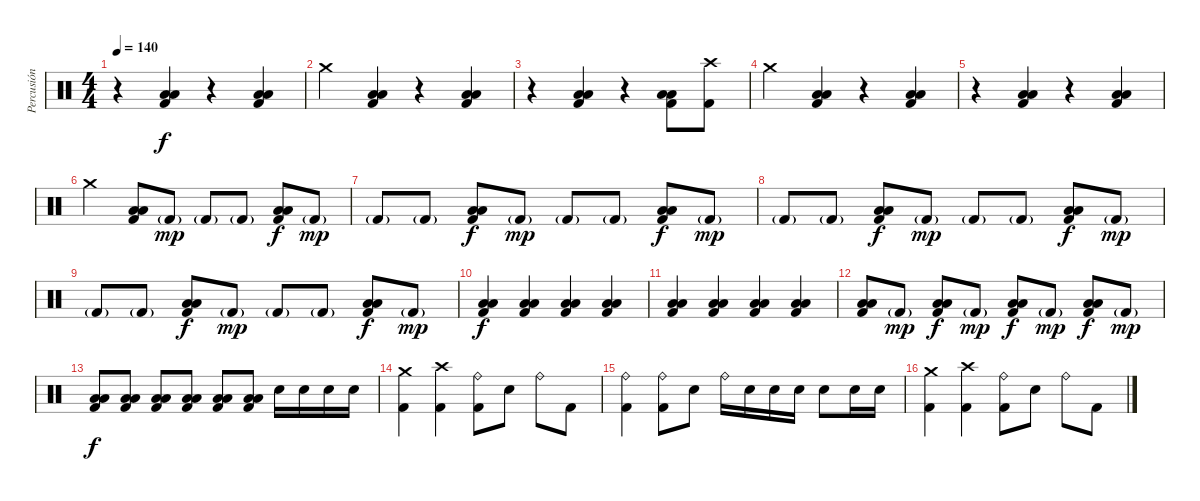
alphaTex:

\track ("Percusión" "Percusión") {instrument percussion}
\staff {score}
\articulation defaults
\ts (4 4)
\tempo 140
\clef neutral
\ks c
r.4{dy f} ("Low Floor Tom (hit)" "Low Floor Tom (hit)" "Kick (hit) 2").4 r.4 ("Low Floor Tom (hit)" "Low Floor Tom (hit)" "Kick (hit) 2").4 |
"Crash medium (hit)".4 ("Low Floor Tom (hit)" "Low Floor Tom (hit)" "Kick (hit) 2").4 r.4 ("Low Floor Tom (hit)" "Low Floor Tom (hit)" "Kick (hit) 2").4 |
r.4 ("Low Floor Tom (hit)" "Low Floor Tom (hit)" "Kick (hit) 2").4 r.4 ("Low Floor Tom (hit)" "Low Floor Tom (hit)" "Kick (hit) 2").8 ("Crash high (hit)" "Kick (hit) 2").8 |
"Crash medium (hit)".4 ("Low Floor Tom (hit)" "Low Floor Tom (hit)" "Kick (hit) 2").4 r.4 ("Low Floor Tom (hit)" "Low Floor Tom (hit)" "Kick (hit) 2").4 |
r.4 ("Low Floor Tom (hit)" "Low Floor Tom (hit)" "Kick (hit) 2").4 r.4 ("Low Floor Tom (hit)" "Low Floor Tom (hit)" "Kick (hit) 2").4 |
"Crash medium (hit)".4 ("Low Floor Tom (hit)" "Low Floor Tom (hit)" "Kick (hit) 2").8 "Kick (hit) 2"{g}.8{dy mp} "Kick (hit) 2"{g}.8 "Kick (hit) 2"{g}.8 ("Low Floor Tom (hit)" "Low Floor Tom (hit)" "Kick (hit) 2").8{dy f} "Kick (hit) 2"{g}.8{dy mp} |
"Kick (hit) 2"{g}.8 "Kick (hit) 2"{g}.8 ("Low Floor Tom (hit)" "Low Floor Tom (hit)" "Kick (hit) 2").8{dy f} "Kick (hit) 2"{g}.8{dy mp} "Kick (hit) 2"{g}.8 "Kick (hit) 2"{g}.8 ("Low Floor Tom (hit)" "Low Floor Tom (hit)" "Kick (hit) 2").8{dy f} "Kick (hit) 2"{g}.8{dy mp} |
"Kick (hit) 2"{g}.8 "Kick (hit) 2"{g}.8 ("Low Floor Tom (hit)" "Low Floor Tom (hit)" "Kick (hit) 2").8{dy f} "Kick (hit) 2"{g}.8{dy mp} "Kick (hit) 2"{g}.8 "Kick (hit) 2"{g}.8 ("Low Floor Tom (hit)" "Low Floor Tom (hit)" "Kick (hit) 2").8{dy f} "Kick (hit) 2"{g}.8{dy mp} |
"Kick (hit) 2"{g}.8 "Kick (hit) 2"{g}.8 ("Low Floor Tom (hit)" "Low Floor Tom (hit)" "Kick (hit) 2").8{dy f} "Kick (hit) 2"{g}.8{dy mp} "Kick (hit) 2"{g}.8 "Kick (hit) 2"{g}.8 ("Low Floor Tom (hit)" "Low Floor Tom (hit)" "Kick (hit) 2").8{dy f} "Kick (hit) 2"{g}.8{dy mp} |
("Low Floor Tom (hit)" "Low Floor Tom (hit)" "Kick (hit) 2").4{dy f} ("Low Floor Tom (hit)" "Low Floor Tom (hit)" "Kick (hit) 2").4 ("Low Floor Tom (hit)" "Low Floor Tom (hit)" "Kick (hit) 2").4 ("Low Floor Tom (hit)" "Low Floor Tom (hit)" "Kick (hit) 2").4 |
("Low Floor Tom (hit)" "Low Floor Tom (hit)" "Kick (hit) 2").4 ("Low Floor Tom (hit)" "Low Floor Tom (hit)" "Kick (hit) 2").4 ("Low Floor Tom (hit)" "Low Floor Tom (hit)" "Kick (hit) 2").4 ("Low Floor Tom (hit)" "Low Floor Tom (hit)" "Kick (hit) 2").4 |
("Low Floor Tom (hit)" "Low Floor Tom (hit)" "Kick (hit) 2").8 "Kick (hit) 2"{g}.8{dy mp} ("Low Floor Tom (hit)" "Low Floor Tom (hit)" "Kick (hit) 2").8{dy f} "Kick (hit) 2"{g}.8{dy mp} ("Low Floor Tom (hit)" "Low Floor Tom (hit)" "Kick (hit) 2").8{dy f} "Kick (hit) 2"{g}.8{dy mp} ("Low Floor Tom (hit)" "Low Floor Tom (hit)" "Kick (hit) 2").8{dy f} "Kick (hit) 2"{g}.8{dy mp} |
("Low Floor Tom (hit)" "Low Floor Tom (hit)" "Kick (hit) 2").8{dy f} ("Low Floor Tom (hit)" "Low Floor Tom (hit)" "Kick (hit) 2").8 ("Low Floor Tom (hit)" "Low Floor Tom (hit)" "Kick (hit) 2").8 ("Low Floor Tom (hit)" "Low Floor Tom (hit)" "Kick (hit) 2").8 ("Low Floor Tom (hit)" "Low Floor Tom (hit)" "Kick (hit) 2").8 ("Low Floor Tom (hit)" "Low Floor Tom (hit)" "Kick (hit) 2").8 "Electric Snare (hit)".16 "Electric Snare (hit)".16 "Electric Snare (hit)".16 "Electric Snare (hit)".16 |
("Crash medium (hit)" "Kick (hit) 2").4 ("Crash high (hit)" "Kick (hit) 2").4 ("Ride (bell)" "Kick (hit) 2").8 "Electric Snare (hit)".8 "Ride (bell)".8 "Kick (hit) 2".8 |
("Ride (bell)" "Kick (hit) 2").4 ("Ride (bell)" "Kick (hit) 2").8 "Electric Snare (hit)".8 "Ride (bell)".16 "Electric Snare (hit)".16 "Electric Snare (hit)".16 "Electric Snare (hit)".16 "Electric Snare (hit)".8 "Electric Snare (hit)".16 "Electric Snare (hit)".16 |
("Crash medium (hit)" "Kick (hit) 2").4 ("Crash high (hit)" "Kick (hit) 2").4 ("Ride (bell)" "Kick (hit) 2").8 "Electric Snare (hit)".8 "Ride (bell)".8 "Kick (hit) 2".8
